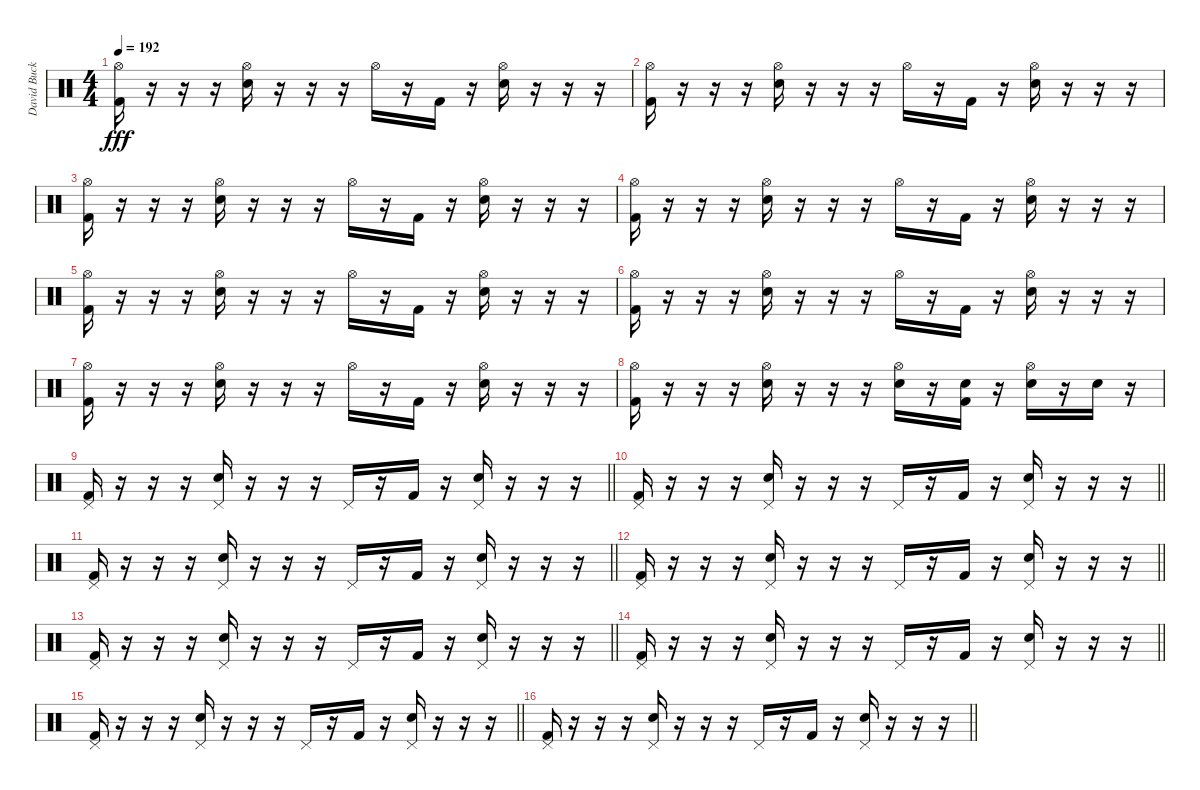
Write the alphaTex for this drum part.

\track ("David Buckner" "David Buck") {instrument percussion}
\staff {score}
\articulation defaults
\ts (4 4)
\tempo 192
\clef neutral
\ks c
("Hi-Hat (open)" "Kick (hit) 2").16{dy fff} r.16 r.16 r.16 ("Hi-Hat (open)" "Electric Snare (hit)").16 r.16 r.16 r.16 "Hi-Hat (open)".16 r.16 "Kick (hit) 2".16 r.16 ("Hi-Hat (open)" "Electric Snare (hit)").16 r.16 r.16 r.16 |
("Hi-Hat (open)" "Kick (hit) 2").16 r.16 r.16 r.16 ("Hi-Hat (open)" "Electric Snare (hit)").16 r.16 r.16 r.16 "Hi-Hat (open)".16 r.16 "Kick (hit) 2".16 r.16 ("Hi-Hat (open)" "Electric Snare (hit)").16 r.16 r.16 r.16 |
("Hi-Hat (open)" "Kick (hit) 2").16 r.16 r.16 r.16 ("Hi-Hat (open)" "Electric Snare (hit)").16 r.16 r.16 r.16 "Hi-Hat (open)".16 r.16 "Kick (hit) 2".16 r.16 ("Hi-Hat (open)" "Electric Snare (hit)").16 r.16 r.16 r.16 |
("Hi-Hat (open)" "Kick (hit) 2").16 r.16 r.16 r.16 ("Hi-Hat (open)" "Electric Snare (hit)").16 r.16 r.16 r.16 "Hi-Hat (open)".16 r.16 "Kick (hit) 2".16 r.16 ("Hi-Hat (open)" "Electric Snare (hit)").16 r.16 r.16 r.16 |
("Hi-Hat (open)" "Kick (hit) 2").16 r.16 r.16 r.16 ("Hi-Hat (open)" "Electric Snare (hit)").16 r.16 r.16 r.16 "Hi-Hat (open)".16 r.16 "Kick (hit) 2".16 r.16 ("Hi-Hat (open)" "Electric Snare (hit)").16 r.16 r.16 r.16 |
("Hi-Hat (open)" "Kick (hit) 2").16 r.16 r.16 r.16 ("Hi-Hat (open)" "Electric Snare (hit)").16 r.16 r.16 r.16 "Hi-Hat (open)".16 r.16 "Kick (hit) 2".16 r.16 ("Hi-Hat (open)" "Electric Snare (hit)").16 r.16 r.16 r.16 |
("Hi-Hat (open)" "Kick (hit) 2").16 r.16 r.16 r.16 ("Hi-Hat (open)" "Electric Snare (hit)").16 r.16 r.16 r.16 "Hi-Hat (open)".16 r.16 "Kick (hit) 2".16 r.16 ("Hi-Hat (open)" "Electric Snare (hit)").16 r.16 r.16 r.16 |
("Hi-Hat (open)" "Kick (hit) 2").16 r.16 r.16 r.16 ("Hi-Hat (open)" "Electric Snare (hit)").16 r.16 r.16 r.16 ("Hi-Hat (open)" "Electric Snare (hit)").16 r.16 ("Electric Snare (hit)" "Kick (hit) 2").16 r.16 ("Hi-Hat (open)" "Electric Snare (hit)").16 r.16 "Electric Snare (hit)".16 r.16 |
\barLineRight lightlight
("Pedal Hi-Hat (hit)" "Kick (hit) 2").16 r.16 r.16 r.16 ("Pedal Hi-Hat (hit)" "Electric Snare (hit)").16 r.16 r.16 r.16 "Pedal Hi-Hat (hit)".16 r.16 "Kick (hit) 2".16 r.16 ("Pedal Hi-Hat (hit)" "Electric Snare (hit)").16 r.16 r.16 r.16 |
\barLineRight lightlight
("Pedal Hi-Hat (hit)" "Kick (hit) 2").16 r.16 r.16 r.16 ("Pedal Hi-Hat (hit)" "Electric Snare (hit)").16 r.16 r.16 r.16 "Pedal Hi-Hat (hit)".16 r.16 "Kick (hit) 2".16 r.16 ("Pedal Hi-Hat (hit)" "Electric Snare (hit)").16 r.16 r.16 r.16 |
\barLineRight lightlight
("Pedal Hi-Hat (hit)" "Kick (hit) 2").16 r.16 r.16 r.16 ("Pedal Hi-Hat (hit)" "Electric Snare (hit)").16 r.16 r.16 r.16 "Pedal Hi-Hat (hit)".16 r.16 "Kick (hit) 2".16 r.16 ("Pedal Hi-Hat (hit)" "Electric Snare (hit)").16 r.16 r.16 r.16 |
\barLineRight lightlight
("Pedal Hi-Hat (hit)" "Kick (hit) 2").16 r.16 r.16 r.16 ("Pedal Hi-Hat (hit)" "Electric Snare (hit)").16 r.16 r.16 r.16 "Pedal Hi-Hat (hit)".16 r.16 "Kick (hit) 2".16 r.16 ("Pedal Hi-Hat (hit)" "Electric Snare (hit)").16 r.16 r.16 r.16 |
\barLineRight lightlight
("Pedal Hi-Hat (hit)" "Kick (hit) 2").16 r.16 r.16 r.16 ("Pedal Hi-Hat (hit)" "Electric Snare (hit)").16 r.16 r.16 r.16 "Pedal Hi-Hat (hit)".16 r.16 "Kick (hit) 2".16 r.16 ("Pedal Hi-Hat (hit)" "Electric Snare (hit)").16 r.16 r.16 r.16 |
\barLineRight lightlight
("Pedal Hi-Hat (hit)" "Kick (hit) 2").16 r.16 r.16 r.16 ("Pedal Hi-Hat (hit)" "Electric Snare (hit)").16 r.16 r.16 r.16 "Pedal Hi-Hat (hit)".16 r.16 "Kick (hit) 2".16 r.16 ("Pedal Hi-Hat (hit)" "Electric Snare (hit)").16 r.16 r.16 r.16 |
\barLineRight lightlight
("Pedal Hi-Hat (hit)" "Kick (hit) 2").16 r.16 r.16 r.16 ("Pedal Hi-Hat (hit)" "Electric Snare (hit)").16 r.16 r.16 r.16 "Pedal Hi-Hat (hit)".16 r.16 "Kick (hit) 2".16 r.16 ("Pedal Hi-Hat (hit)" "Electric Snare (hit)").16 r.16 r.16 r.16 |
\barLineRight lightlight
("Pedal Hi-Hat (hit)" "Kick (hit) 2").16 r.16 r.16 r.16 ("Pedal Hi-Hat (hit)" "Electric Snare (hit)").16 r.16 r.16 r.16 "Pedal Hi-Hat (hit)".16 r.16 "Kick (hit) 2".16 r.16 ("Pedal Hi-Hat (hit)" "Electric Snare (hit)").16 r.16 r.16 r.16
